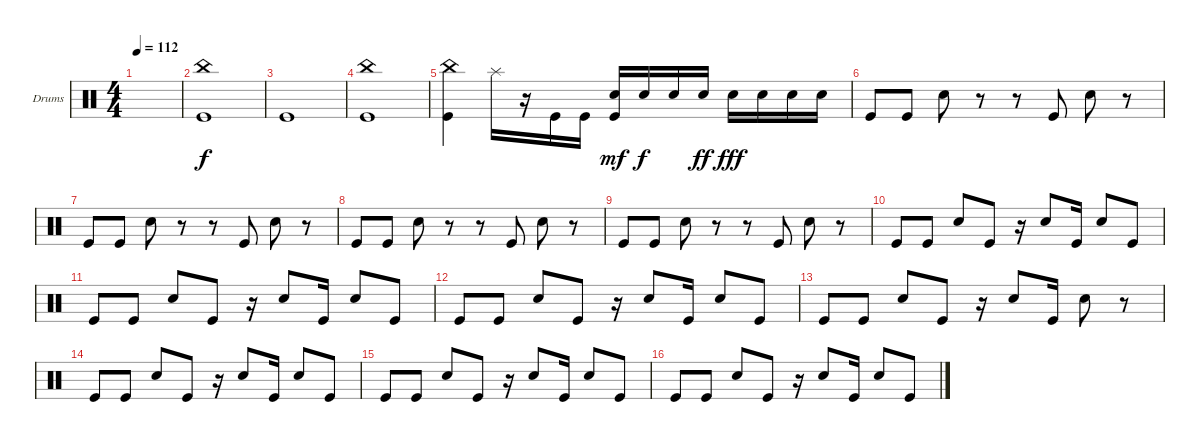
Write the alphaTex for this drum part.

\defaultSystemsLayout 4
\bracketExtendMode groupsimilarinstruments
\firstSystemTrackNameOrientation horizontal
\otherSystemsTrackNameOrientation horizontal
\track ("Пашок" "Drums") {instrument percussion}
\staff {score}
\articulation defaults
\ts (4 4)
\tempo 112
\clef neutral
\scale
0.472222
\ks c
|
\scale
0.263889 ("Kick (hit)" "China (hit)").1 |
\scale
0.263889 "Kick (hit)".1 |
\scale
0.333333 ("Kick (hit)" "China (hit)").1 |
\scale
0.333333 ("Kick (hit)" "China (hit)").4 "Splash (hit)".16 r.16 "Kick (hit)".16 "Kick (hit)".16 ("Snare (hit) 2" "Kick (hit)").16{dy mf} "Snare (hit) 2".16{dy f} "Snare (hit) 2".16 "Snare (hit) 2".16{dy ff} "Snare (hit) 2".16{dy fff} "Snare (hit) 2".16 "Snare (hit) 2".16 "Snare (hit) 2".16 |
\scale
0.333333 "Kick (hit)".8 "Kick (hit)".8 "Snare (hit) 2".8 r.8 r.8 "Kick (hit)".8 "Snare (hit) 2".8 r.8 |
"Kick (hit)".8 "Kick (hit)".8 "Snare (hit) 2".8 r.8 r.8 "Kick (hit)".8 "Snare (hit) 2".8 r.8 |
"Kick (hit)".8 "Kick (hit)".8 "Snare (hit) 2".8 r.8 r.8 "Kick (hit)".8 "Snare (hit) 2".8 r.8 |
"Kick (hit)".8 "Kick (hit)".8 "Snare (hit) 2".8 r.8 r.8 "Kick (hit)".8 "Snare (hit) 2".8 r.8 |
"Kick (hit)".8 "Kick (hit)".8 "Snare (hit) 2".8 "Kick (hit)".8 r.16 "Snare (hit) 2".8 "Kick (hit)".16 "Snare (hit) 2".8 "Kick (hit)".8 |
"Kick (hit)".8 "Kick (hit)".8 "Snare (hit) 2".8 "Kick (hit)".8 r.16 "Snare (hit) 2".8 "Kick (hit)".16 "Snare (hit) 2".8 "Kick (hit)".8 |
"Kick (hit)".8 "Kick (hit)".8 "Snare (hit) 2".8 "Kick (hit)".8 r.16 "Snare (hit) 2".8 "Kick (hit)".16 "Snare (hit) 2".8 "Kick (hit)".8 |
"Kick (hit)".8 "Kick (hit)".8 "Snare (hit) 2".8 "Kick (hit)".8 r.16 "Snare (hit) 2".8 "Kick (hit)".16 "Snare (hit) 2".8 r.8 |
"Kick (hit)".8 "Kick (hit)".8 "Snare (hit) 2".8 "Kick (hit)".8 r.16 "Snare (hit) 2".8 "Kick (hit)".16 "Snare (hit) 2".8 "Kick (hit)".8 |
"Kick (hit)".8 "Kick (hit)".8 "Snare (hit) 2".8 "Kick (hit)".8 r.16 "Snare (hit) 2".8 "Kick (hit)".16 "Snare (hit) 2".8 "Kick (hit)".8 |
"Kick (hit)".8 "Kick (hit)".8 "Snare (hit) 2".8 "Kick (hit)".8 r.16 "Snare (hit) 2".8 "Kick (hit)".16 "Snare (hit) 2".8 "Kick (hit)".8
